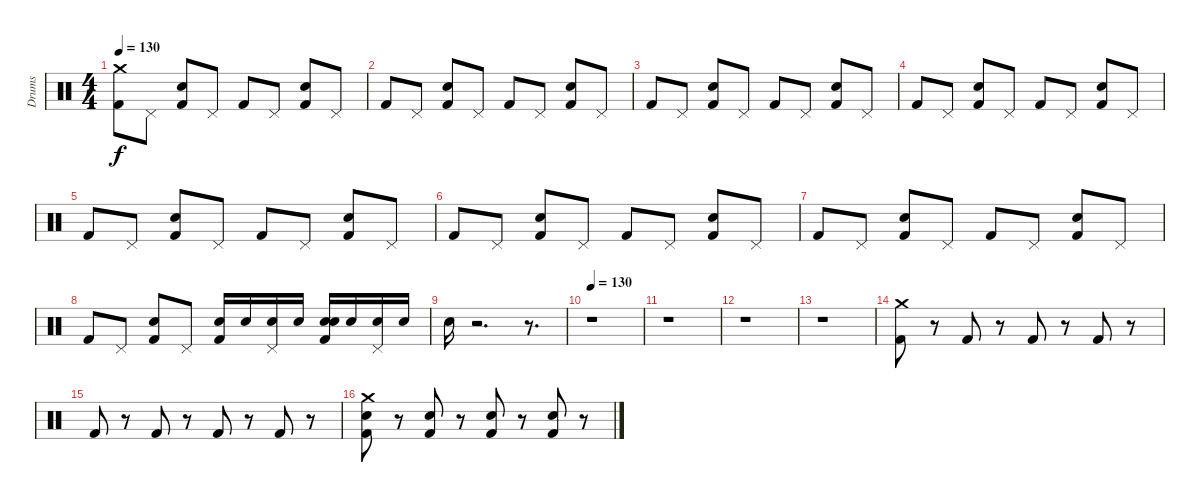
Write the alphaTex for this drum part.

\track ("Drums" "Drums") {instrument percussion}
\staff {score}
\articulation defaults
\ts (4 4)
\tempo 130
\clef neutral
\ks c
("Crash medium (hit)" "Kick (hit) 2").8{dy f} "Pedal Hi-Hat (hit)".8 ("Snare (hit) 2" "Kick (hit) 2").8 "Pedal Hi-Hat (hit)".8 "Kick (hit) 2".8 "Pedal Hi-Hat (hit)".8 ("Snare (hit) 2" "Kick (hit) 2").8 "Pedal Hi-Hat (hit)".8 |
"Kick (hit) 2".8 "Pedal Hi-Hat (hit)".8 ("Snare (hit) 2" "Kick (hit) 2").8 "Pedal Hi-Hat (hit)".8 "Kick (hit) 2".8 "Pedal Hi-Hat (hit)".8 ("Snare (hit) 2" "Kick (hit) 2").8 "Pedal Hi-Hat (hit)".8 |
"Kick (hit) 2".8 "Pedal Hi-Hat (hit)".8 ("Snare (hit) 2" "Kick (hit) 2").8 "Pedal Hi-Hat (hit)".8 "Kick (hit) 2".8 "Pedal Hi-Hat (hit)".8 ("Snare (hit) 2" "Kick (hit) 2").8 "Pedal Hi-Hat (hit)".8 |
"Kick (hit) 2".8 "Pedal Hi-Hat (hit)".8 ("Snare (hit) 2" "Kick (hit) 2").8 "Pedal Hi-Hat (hit)".8 "Kick (hit) 2".8 "Pedal Hi-Hat (hit)".8 ("Snare (hit) 2" "Kick (hit) 2").8 "Pedal Hi-Hat (hit)".8 |
"Kick (hit) 2".8 "Pedal Hi-Hat (hit)".8 ("Snare (hit) 2" "Kick (hit) 2").8 "Pedal Hi-Hat (hit)".8 "Kick (hit) 2".8 "Pedal Hi-Hat (hit)".8 ("Snare (hit) 2" "Kick (hit) 2").8 "Pedal Hi-Hat (hit)".8 |
"Kick (hit) 2".8 "Pedal Hi-Hat (hit)".8 ("Snare (hit) 2" "Kick (hit) 2").8 "Pedal Hi-Hat (hit)".8 "Kick (hit) 2".8 "Pedal Hi-Hat (hit)".8 ("Snare (hit) 2" "Kick (hit) 2").8 "Pedal Hi-Hat (hit)".8 |
"Kick (hit) 2".8 "Pedal Hi-Hat (hit)".8 ("Snare (hit) 2" "Kick (hit) 2").8 "Pedal Hi-Hat (hit)".8 "Kick (hit) 2".8 "Pedal Hi-Hat (hit)".8 ("Snare (hit) 2" "Kick (hit) 2").8 "Pedal Hi-Hat (hit)".8 |
"Kick (hit) 2".8 "Pedal Hi-Hat (hit)".8 ("Snare (hit) 2" "Kick (hit) 2").8 "Pedal Hi-Hat (hit)".8 ("Electric Snare (hit)" "Kick (hit) 2").16 "Electric Snare (hit)".16 ("Pedal Hi-Hat (hit)" "Electric Snare (hit)").16 "Electric Snare (hit)".16 ("Electric Snare (hit)" "Snare (hit) 2" "Kick (hit) 2").16 "Electric Snare (hit)".16 ("Pedal Hi-Hat (hit)" "Electric Snare (hit)").16 "Electric Snare (hit)".16 |
"Electric Snare (hit)".16 r.2{d} r.8{d} |
\tempo 130
r.1 |
r.1 |
r.1 |
r.1 |
("Crash medium (hit)" "Kick (hit) 2").8 r.8 "Kick (hit) 2".8 r.8 "Kick (hit) 2".8 r.8 "Kick (hit) 2".8 r.8 |
"Kick (hit) 2".8 r.8 "Kick (hit) 2".8 r.8 "Kick (hit) 2".8 r.8 "Kick (hit) 2".8 r.8 |
("Crash medium (hit)" "Snare (hit) 2" "Kick (hit) 2").8 r.8 ("Snare (hit) 2" "Kick (hit) 2").8 r.8 ("Snare (hit) 2" "Kick (hit) 2").8 r.8 ("Snare (hit) 2" "Kick (hit) 2").8 r.8
